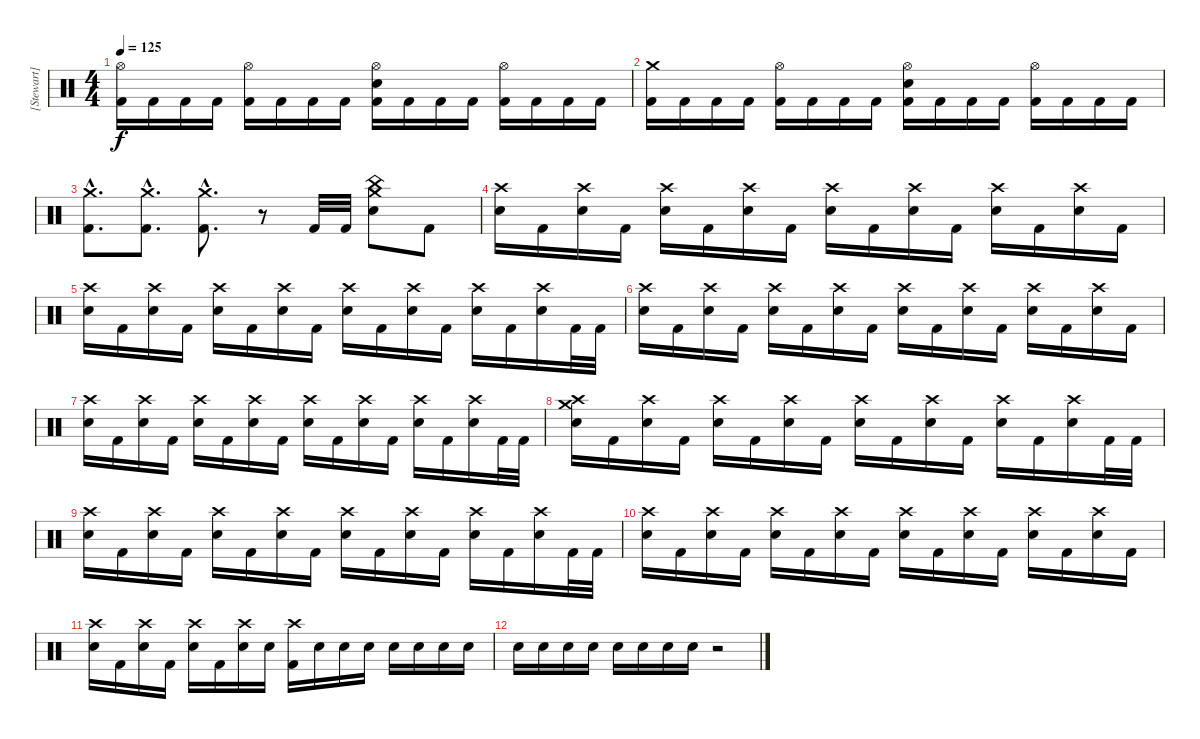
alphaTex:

\track ("[Stewart]" "[Stewart]") {instrument percussion}
\staff {score}
\articulation defaults
\ts (4 4)
\tempo 125
\clef neutral
\ks c
("Hi-Hat (open)" "Kick (hit) 2").16{dy f} "Kick (hit) 2".16 "Kick (hit) 2".16 "Kick (hit) 2".16 ("Hi-Hat (open)" "Kick (hit) 2").16 "Kick (hit) 2".16 "Kick (hit) 2".16 "Kick (hit) 2".16 ("Hi-Hat (open)" "Electric Snare (hit)" "Kick (hit) 2").16 "Kick (hit) 2".16 "Kick (hit) 2".16 "Kick (hit) 2".16 ("Hi-Hat (open)" "Kick (hit) 2").16 "Kick (hit) 2".16 "Kick (hit) 2".16 "Kick (hit) 2".16 |
("Crash medium (hit)" "Kick (hit) 2").16 "Kick (hit) 2".16 "Kick (hit) 2".16 "Kick (hit) 2".16 ("Hi-Hat (open)" "Kick (hit) 2").16 "Kick (hit) 2".16 "Kick (hit) 2".16 "Kick (hit) 2".16 ("Hi-Hat (open)" "Electric Snare (hit)" "Kick (hit) 2").16 "Kick (hit) 2".16 "Kick (hit) 2".16 "Kick (hit) 2".16 ("Hi-Hat (open)" "Kick (hit) 2").16 "Kick (hit) 2".16 "Kick (hit) 2".16 "Kick (hit) 2".16 |
("Crash medium (hit)"{hac} "Kick (hit) 2"{hac}).8{d} ("Crash medium (hit)"{hac} "Kick (hit) 2"{hac}).8{d} ("Crash medium (hit)"{hac} "Kick (hit) 2"{hac}).8{d} r.8 "Kick (hit) 2".32 "Kick (hit) 2".32 ("Crash medium (hit)" "China (hit)" "Electric Snare (hit)").8 "Kick (hit) 2".8 |
("Crash high (hit)" "Electric Snare (hit)").16 "Kick (hit) 2".16 ("Crash high (hit)" "Electric Snare (hit)").16 "Kick (hit) 2".16 ("Crash high (hit)" "Electric Snare (hit)").16 "Kick (hit) 2".16 ("Crash high (hit)" "Electric Snare (hit)").16 "Kick (hit) 2".16 ("Crash high (hit)" "Electric Snare (hit)").16 "Kick (hit) 2".16 ("Crash high (hit)" "Electric Snare (hit)").16 "Kick (hit) 2".16 ("Crash high (hit)" "Electric Snare (hit)").16 "Kick (hit) 2".16 ("Crash high (hit)" "Electric Snare (hit)").16 "Kick (hit) 2".16 |
("Crash high (hit)" "Electric Snare (hit)").16 "Kick (hit) 2".16 ("Crash high (hit)" "Electric Snare (hit)").16 "Kick (hit) 2".16 ("Crash high (hit)" "Electric Snare (hit)").16 "Kick (hit) 2".16 ("Crash high (hit)" "Electric Snare (hit)").16 "Kick (hit) 2".16 ("Crash high (hit)" "Electric Snare (hit)").16 "Kick (hit) 2".16 ("Crash high (hit)" "Electric Snare (hit)").16 "Kick (hit) 2".16 ("Crash high (hit)" "Electric Snare (hit)").16 "Kick (hit) 2".16 ("Crash high (hit)" "Electric Snare (hit)").16 "Kick (hit) 2".32 "Kick (hit) 2".32 |
("Crash high (hit)" "Electric Snare (hit)").16 "Kick (hit) 2".16 ("Crash high (hit)" "Electric Snare (hit)").16 "Kick (hit) 2".16 ("Crash high (hit)" "Electric Snare (hit)").16 "Kick (hit) 2".16 ("Crash high (hit)" "Electric Snare (hit)").16 "Kick (hit) 2".16 ("Crash high (hit)" "Electric Snare (hit)").16 "Kick (hit) 2".16 ("Crash high (hit)" "Electric Snare (hit)").16 "Kick (hit) 2".16 ("Crash high (hit)" "Electric Snare (hit)").16 "Kick (hit) 2".16 ("Crash high (hit)" "Electric Snare (hit)").16 "Kick (hit) 2".16 |
("Crash high (hit)" "Electric Snare (hit)").16 "Kick (hit) 2".16 ("Crash high (hit)" "Electric Snare (hit)").16 "Kick (hit) 2".16 ("Crash high (hit)" "Electric Snare (hit)").16 "Kick (hit) 2".16 ("Crash high (hit)" "Electric Snare (hit)").16 "Kick (hit) 2".16 ("Crash high (hit)" "Electric Snare (hit)").16 "Kick (hit) 2".16 ("Crash high (hit)" "Electric Snare (hit)").16 "Kick (hit) 2".16 ("Crash high (hit)" "Electric Snare (hit)").16 "Kick (hit) 2".16 ("Crash high (hit)" "Electric Snare (hit)").16 "Kick (hit) 2".32 "Kick (hit) 2".32 |
("Crash high (hit)" "Crash medium (hit)" "Electric Snare (hit)").16 "Kick (hit) 2".16 ("Crash high (hit)" "Electric Snare (hit)").16 "Kick (hit) 2".16 ("Crash high (hit)" "Electric Snare (hit)").16 "Kick (hit) 2".16 ("Crash high (hit)" "Electric Snare (hit)").16 "Kick (hit) 2".16 ("Crash high (hit)" "Electric Snare (hit)").16 "Kick (hit) 2".16 ("Crash high (hit)" "Electric Snare (hit)").16 "Kick (hit) 2".16 ("Crash high (hit)" "Electric Snare (hit)").16 "Kick (hit) 2".16 ("Crash high (hit)" "Electric Snare (hit)").16 "Kick (hit) 2".32 "Kick (hit) 2".32 |
("Crash high (hit)" "Electric Snare (hit)").16 "Kick (hit) 2".16 ("Crash high (hit)" "Electric Snare (hit)").16 "Kick (hit) 2".16 ("Crash high (hit)" "Electric Snare (hit)").16 "Kick (hit) 2".16 ("Crash high (hit)" "Electric Snare (hit)").16 "Kick (hit) 2".16 ("Crash high (hit)" "Electric Snare (hit)").16 "Kick (hit) 2".16 ("Crash high (hit)" "Electric Snare (hit)").16 "Kick (hit) 2".16 ("Crash high (hit)" "Electric Snare (hit)").16 "Kick (hit) 2".16 ("Crash high (hit)" "Electric Snare (hit)").16 "Kick (hit) 2".32 "Kick (hit) 2".32 |
("Crash high (hit)" "Electric Snare (hit)").16 "Kick (hit) 2".16 ("Crash high (hit)" "Electric Snare (hit)").16 "Kick (hit) 2".16 ("Crash high (hit)" "Electric Snare (hit)").16 "Kick (hit) 2".16 ("Crash high (hit)" "Electric Snare (hit)").16 "Kick (hit) 2".16 ("Crash high (hit)" "Electric Snare (hit)").16 "Kick (hit) 2".16 ("Crash high (hit)" "Electric Snare (hit)").16 "Kick (hit) 2".16 ("Crash high (hit)" "Electric Snare (hit)").16 "Kick (hit) 2".16 ("Crash high (hit)" "Electric Snare (hit)").16 "Kick (hit) 2".16 |
("Crash high (hit)" "Electric Snare (hit)").16 "Kick (hit) 2".16 ("Crash high (hit)" "Electric Snare (hit)").16 "Kick (hit) 2".16 ("Crash high (hit)" "Electric Snare (hit)").16 "Kick (hit) 2".16 ("Crash high (hit)" "Electric Snare (hit)").16 "Electric Snare (hit)".16 ("Crash high (hit)" "Kick (hit) 2").16 "Electric Snare (hit)".16 "Electric Snare (hit)".16 "Electric Snare (hit)".16 "Electric Snare (hit)".16 "Electric Snare (hit)".16 "Electric Snare (hit)".16 "Electric Snare (hit)".16 |
"Electric Snare (hit)".16 "Electric Snare (hit)".16 "Electric Snare (hit)".16 "Electric Snare (hit)".16 "Electric Snare (hit)".16 "Electric Snare (hit)".16 "Electric Snare (hit)".16 "Electric Snare (hit)".16 r.2
